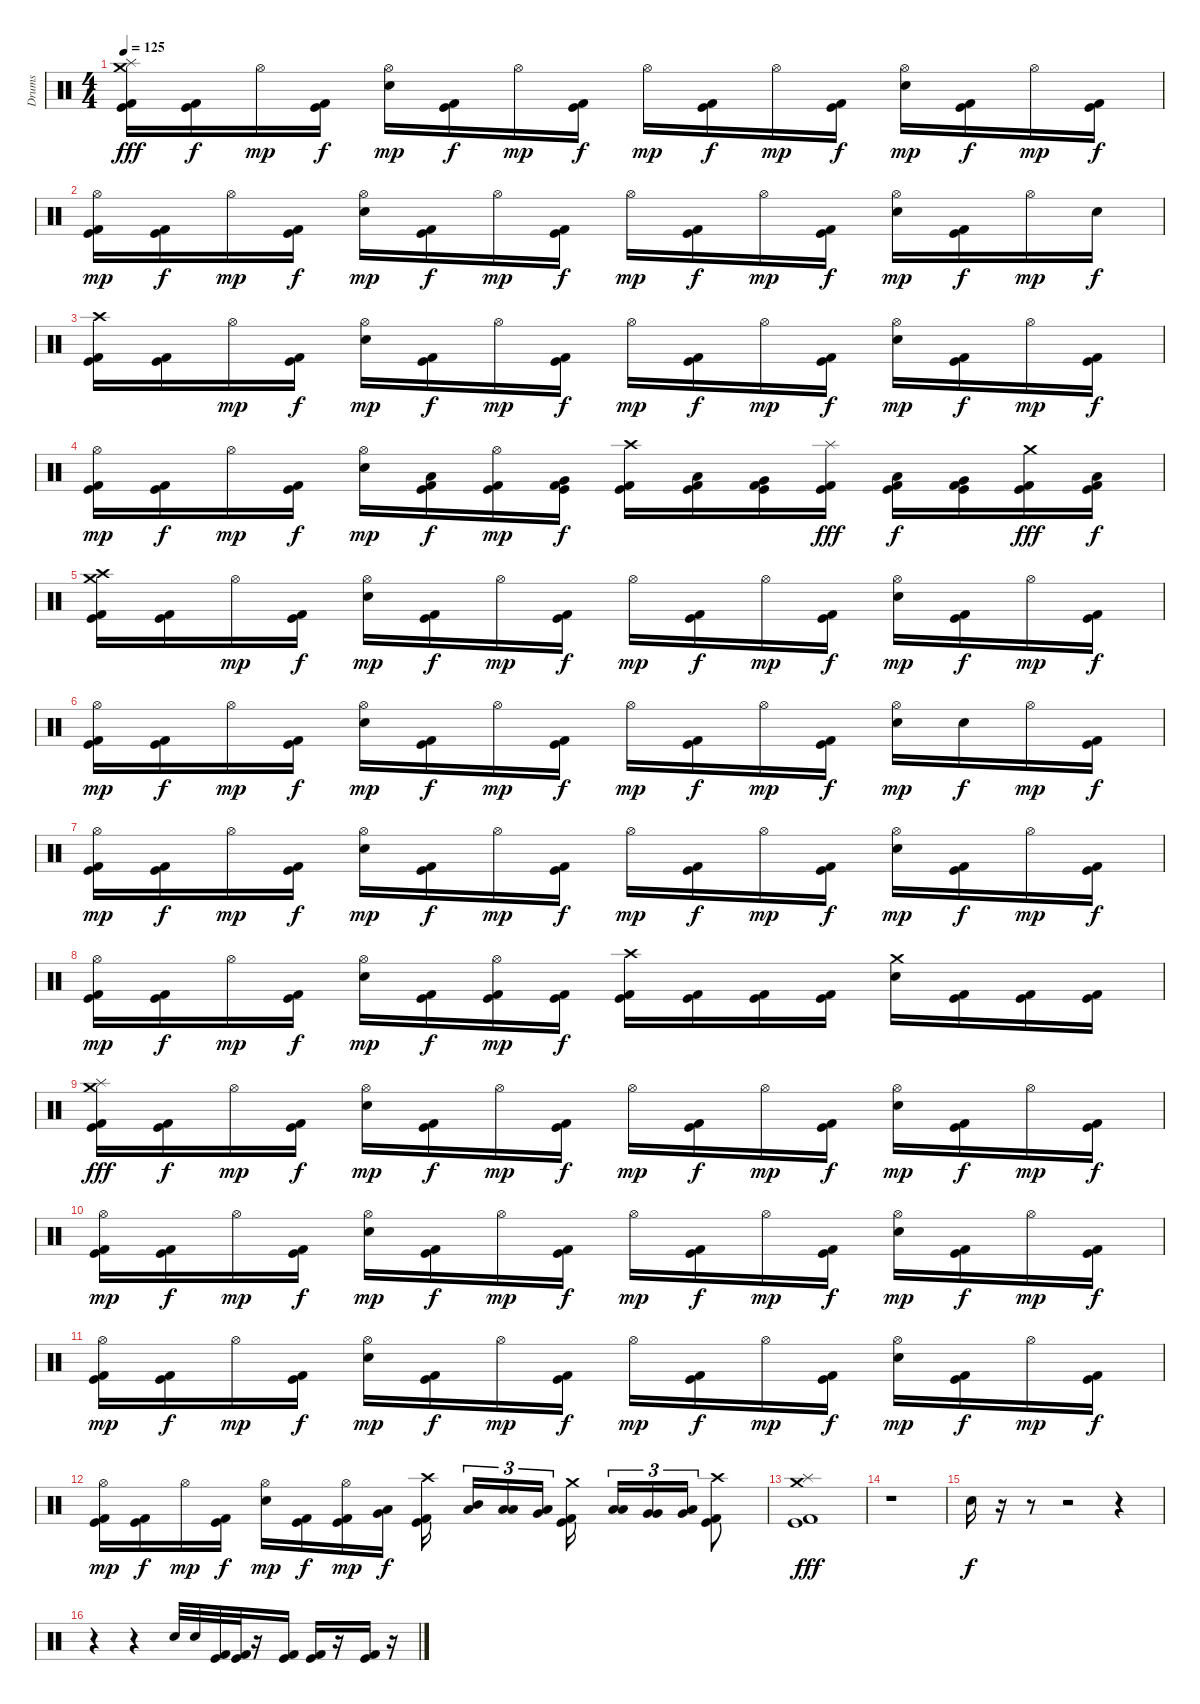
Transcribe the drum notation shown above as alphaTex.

\track ("Drums" "Drums") {instrument percussion}
\staff {score}
\articulation defaults
\ts (4 4)
\tempo 125
\clef neutral
\ks c
("Splash (hit)" "Crash medium (hit)" "Kick (hit)" "Kick (hit) 2").16{dy fff} ("Kick (hit)" "Kick (hit) 2").16{dy f} "Hi-Hat (open)".16{dy mp} ("Kick (hit)" "Kick (hit) 2").16{dy f} ("Hi-Hat (open)" "Electric Snare (hit)").16{dy mp} ("Kick (hit)" "Kick (hit) 2").16{dy f} "Hi-Hat (open)".16{dy mp} ("Kick (hit)" "Kick (hit) 2").16{dy f} "Hi-Hat (open)".16{dy mp} ("Kick (hit)" "Kick (hit) 2").16{dy f} "Hi-Hat (open)".16{dy mp} ("Kick (hit)" "Kick (hit) 2").16{dy f} ("Hi-Hat (open)" "Electric Snare (hit)").16{dy mp} ("Kick (hit)" "Kick (hit) 2").16{dy f} "Hi-Hat (open)".16{dy mp} ("Kick (hit)" "Kick (hit) 2").16{dy f} |
("Hi-Hat (open)" "Kick (hit)" "Kick (hit) 2").16{dy mp} ("Kick (hit)" "Kick (hit) 2").16{dy f} "Hi-Hat (open)".16{dy mp} ("Kick (hit)" "Kick (hit) 2").16{dy f} ("Hi-Hat (open)" "Electric Snare (hit)").16{dy mp} ("Kick (hit)" "Kick (hit) 2").16{dy f} "Hi-Hat (open)".16{dy mp} ("Kick (hit)" "Kick (hit) 2").16{dy f} "Hi-Hat (open)".16{dy mp} ("Kick (hit)" "Kick (hit) 2").16{dy f} "Hi-Hat (open)".16{dy mp} ("Kick (hit)" "Kick (hit) 2").16{dy f} ("Hi-Hat (open)" "Electric Snare (hit)").16{dy mp} ("Kick (hit)" "Kick (hit) 2").16{dy f} "Hi-Hat (open)".16{dy mp} "Electric Snare (hit)".16{dy f} |
("Crash high (hit)" "Kick (hit)" "Kick (hit) 2").16 ("Kick (hit)" "Kick (hit) 2").16 "Hi-Hat (open)".16{dy mp} ("Kick (hit)" "Kick (hit) 2").16{dy f} ("Hi-Hat (open)" "Electric Snare (hit)").16{dy mp} ("Kick (hit)" "Kick (hit) 2").16{dy f} "Hi-Hat (open)".16{dy mp} ("Kick (hit)" "Kick (hit) 2").16{dy f} "Hi-Hat (open)".16{dy mp} ("Kick (hit)" "Kick (hit) 2").16{dy f} "Hi-Hat (open)".16{dy mp} ("Kick (hit)" "Kick (hit) 2").16{dy f} ("Hi-Hat (open)" "Electric Snare (hit)").16{dy mp} ("Kick (hit)" "Kick (hit) 2").16{dy f} "Hi-Hat (open)".16{dy mp} ("Kick (hit)" "Kick (hit) 2").16{dy f} |
("Hi-Hat (open)" "Kick (hit)" "Kick (hit) 2").16{dy mp} ("Kick (hit)" "Kick (hit) 2").16{dy f} "Hi-Hat (open)".16{dy mp} ("Kick (hit)" "Kick (hit) 2").16{dy f} ("Hi-Hat (open)" "Electric Snare (hit)").16{dy mp} ("Low Tom (hit)" "Kick (hit)" "Kick (hit) 2").16{dy f} ("Hi-Hat (open)" "Kick (hit)" "Kick (hit) 2").16{dy mp} ("Very Low Tom (hit)" "Kick (hit)" "Kick (hit) 2").16{dy f} ("Crash high (hit)" "Kick (hit)" "Kick (hit) 2").16 ("Low Tom (hit)" "Kick (hit)" "Kick (hit) 2").16 ("Very Low Tom (hit)" "Kick (hit)" "Kick (hit) 2").16 ("Splash (hit)" "Kick (hit)" "Kick (hit) 2").16{dy fff} ("Low Tom (hit)" "Kick (hit)" "Kick (hit) 2").16{dy f} ("Very Low Tom (hit)" "Kick (hit)" "Kick (hit) 2").16 ("Crash medium (hit)" "Kick (hit)" "Kick (hit) 2").16{dy fff} ("Low Floor Tom (hit)" "Kick (hit)" "Kick (hit) 2").16{dy f} |
("Crash high (hit)" "Crash medium (hit)" "Kick (hit)" "Kick (hit) 2").16 ("Kick (hit)" "Kick (hit) 2").16 "Hi-Hat (open)".16{dy mp} ("Kick (hit)" "Kick (hit) 2").16{dy f} ("Hi-Hat (open)" "Electric Snare (hit)").16{dy mp} ("Kick (hit)" "Kick (hit) 2").16{dy f} "Hi-Hat (open)".16{dy mp} ("Kick (hit)" "Kick (hit) 2").16{dy f} "Hi-Hat (open)".16{dy mp} ("Kick (hit)" "Kick (hit) 2").16{dy f} "Hi-Hat (open)".16{dy mp} ("Kick (hit)" "Kick (hit) 2").16{dy f} ("Hi-Hat (open)" "Electric Snare (hit)").16{dy mp} ("Kick (hit)" "Kick (hit) 2").16{dy f} "Hi-Hat (open)".16{dy mp} ("Kick (hit)" "Kick (hit) 2").16{dy f} |
("Hi-Hat (open)" "Kick (hit)" "Kick (hit) 2").16{dy mp} ("Kick (hit)" "Kick (hit) 2").16{dy f} "Hi-Hat (open)".16{dy mp} ("Kick (hit)" "Kick (hit) 2").16{dy f} ("Hi-Hat (open)" "Electric Snare (hit)").16{dy mp} ("Kick (hit)" "Kick (hit) 2").16{dy f} "Hi-Hat (open)".16{dy mp} ("Kick (hit)" "Kick (hit) 2").16{dy f} "Hi-Hat (open)".16{dy mp} ("Kick (hit)" "Kick (hit) 2").16{dy f} "Hi-Hat (open)".16{dy mp} ("Kick (hit)" "Kick (hit) 2").16{dy f} ("Hi-Hat (open)" "Electric Snare (hit)").16{dy mp} "Electric Snare (hit)".16{dy f} "Hi-Hat (open)".16{dy mp} ("Kick (hit)" "Kick (hit) 2").16{dy f} |
("Hi-Hat (open)" "Kick (hit)" "Kick (hit) 2").16{dy mp} ("Kick (hit)" "Kick (hit) 2").16{dy f} "Hi-Hat (open)".16{dy mp} ("Kick (hit)" "Kick (hit) 2").16{dy f} ("Hi-Hat (open)" "Electric Snare (hit)").16{dy mp} ("Kick (hit)" "Kick (hit) 2").16{dy f} "Hi-Hat (open)".16{dy mp} ("Kick (hit)" "Kick (hit) 2").16{dy f} "Hi-Hat (open)".16{dy mp} ("Kick (hit)" "Kick (hit) 2").16{dy f} "Hi-Hat (open)".16{dy mp} ("Kick (hit)" "Kick (hit) 2").16{dy f} ("Hi-Hat (open)" "Electric Snare (hit)").16{dy mp} ("Kick (hit)" "Kick (hit) 2").16{dy f} "Hi-Hat (open)".16{dy mp} ("Kick (hit)" "Kick (hit) 2").16{dy f} |
("Hi-Hat (open)" "Kick (hit)" "Kick (hit) 2").16{dy mp} ("Kick (hit)" "Kick (hit) 2").16{dy f} "Hi-Hat (open)".16{dy mp} ("Kick (hit)" "Kick (hit) 2").16{dy f} ("Hi-Hat (open)" "Electric Snare (hit)").16{dy mp} ("Kick (hit)" "Kick (hit) 2").16{dy f} ("Hi-Hat (open)" "Kick (hit)" "Kick (hit) 2").16{dy mp} ("Kick (hit)" "Kick (hit) 2").16{dy f} ("Crash high (hit)" "Kick (hit)" "Kick (hit) 2").16 ("Kick (hit)" "Kick (hit) 2").16 ("Kick (hit)" "Kick (hit) 2").16 ("Kick (hit)" "Kick (hit) 2").16 ("Crash medium (hit)" "Electric Snare (hit)").16 ("Kick (hit)" "Kick (hit) 2").16 ("Kick (hit)" "Kick (hit) 2").16 ("Kick (hit)" "Kick (hit) 2").16 |
("Splash (hit)" "Crash medium (hit)" "Kick (hit)" "Kick (hit) 2").16{dy fff} ("Kick (hit)" "Kick (hit) 2").16{dy f} "Hi-Hat (open)".16{dy mp} ("Kick (hit)" "Kick (hit) 2").16{dy f} ("Hi-Hat (open)" "Electric Snare (hit)").16{dy mp} ("Kick (hit)" "Kick (hit) 2").16{dy f} "Hi-Hat (open)".16{dy mp} ("Kick (hit)" "Kick (hit) 2").16{dy f} "Hi-Hat (open)".16{dy mp} ("Kick (hit)" "Kick (hit) 2").16{dy f} "Hi-Hat (open)".16{dy mp} ("Kick (hit)" "Kick (hit) 2").16{dy f} ("Hi-Hat (open)" "Electric Snare (hit)").16{dy mp} ("Kick (hit)" "Kick (hit) 2").16{dy f} "Hi-Hat (open)".16{dy mp} ("Kick (hit)" "Kick (hit) 2").16{dy f} |
("Hi-Hat (open)" "Kick (hit)" "Kick (hit) 2").16{dy mp} ("Kick (hit)" "Kick (hit) 2").16{dy f} "Hi-Hat (open)".16{dy mp} ("Kick (hit)" "Kick (hit) 2").16{dy f} ("Hi-Hat (open)" "Electric Snare (hit)").16{dy mp} ("Kick (hit)" "Kick (hit) 2").16{dy f} "Hi-Hat (open)".16{dy mp} ("Kick (hit)" "Kick (hit) 2").16{dy f} "Hi-Hat (open)".16{dy mp} ("Kick (hit)" "Kick (hit) 2").16{dy f} "Hi-Hat (open)".16{dy mp} ("Kick (hit)" "Kick (hit) 2").16{dy f} ("Hi-Hat (open)" "Electric Snare (hit)").16{dy mp} ("Kick (hit)" "Kick (hit) 2").16{dy f} "Hi-Hat (open)".16{dy mp} ("Kick (hit)" "Kick (hit) 2").16{dy f} |
("Hi-Hat (open)" "Kick (hit)" "Kick (hit) 2").16{dy mp} ("Kick (hit)" "Kick (hit) 2").16{dy f} "Hi-Hat (open)".16{dy mp} ("Kick (hit)" "Kick (hit) 2").16{dy f} ("Hi-Hat (open)" "Electric Snare (hit)").16{dy mp} ("Kick (hit)" "Kick (hit) 2").16{dy f} "Hi-Hat (open)".16{dy mp} ("Kick (hit)" "Kick (hit) 2").16{dy f} "Hi-Hat (open)".16{dy mp} ("Kick (hit)" "Kick (hit) 2").16{dy f} "Hi-Hat (open)".16{dy mp} ("Kick (hit)" "Kick (hit) 2").16{dy f} ("Hi-Hat (open)" "Electric Snare (hit)").16{dy mp} ("Kick (hit)" "Kick (hit) 2").16{dy f} "Hi-Hat (open)".16{dy mp} ("Kick (hit)" "Kick (hit) 2").16{dy f} |
("Hi-Hat (open)" "Kick (hit)" "Kick (hit) 2").16{dy mp} ("Kick (hit)" "Kick (hit) 2").16{dy f} "Hi-Hat (open)".16{dy mp} ("Kick (hit)" "Kick (hit) 2").16{dy f} ("Hi-Hat (open)" "Electric Snare (hit)").16{dy mp} ("Kick (hit)" "Kick (hit) 2").16{dy f} ("Hi-Hat (open)" "Kick (hit)" "Kick (hit) 2").16{dy mp} ("Low Floor Tom (hit)" "Very Low Tom (hit)").16{dy f} ("Crash high (hit)" "Kick (hit)" "Kick (hit) 2").16 ("Mid Tom (hit)" "Low Tom (hit)").16{tu (3 2)} ("Low Tom (hit)" "Low Tom (hit)").16{tu (3 2)} ("Very Low Tom (hit)" "Low Tom (hit)").16{tu (3 2)} ("Crash medium (hit)" "Kick (hit)" "Kick (hit) 2").16 ("Low Tom (hit)" "Low Tom (hit)").16{tu (3 2)} ("Very Low Tom (hit)" "Very Low Tom (hit)").16{tu (3 2)} ("Low Floor Tom (hit)" "Very Low Tom (hit)").16{tu (3 2)} ("Crash high (hit)" "Kick (hit)" "Kick (hit) 2").8 |
("Splash (hit)" "Crash medium (hit)" "Kick (hit)" "Kick (hit) 2").1{dy fff} |
r.1 |
"Electric Snare (hit)".16{dy f} r.16 r.8 r.2 r.4 |
r.4 r.4 "Electric Snare (hit)".32 "Electric Snare (hit)".32 ("Kick (hit)" "Kick (hit) 2").32 ("Kick (hit)" "Kick (hit) 2").32 r.16 ("Kick (hit)" "Kick (hit) 2").16 ("Kick (hit)" "Kick (hit) 2").16 r.16 ("Kick (hit)" "Kick (hit) 2").16 r.16
